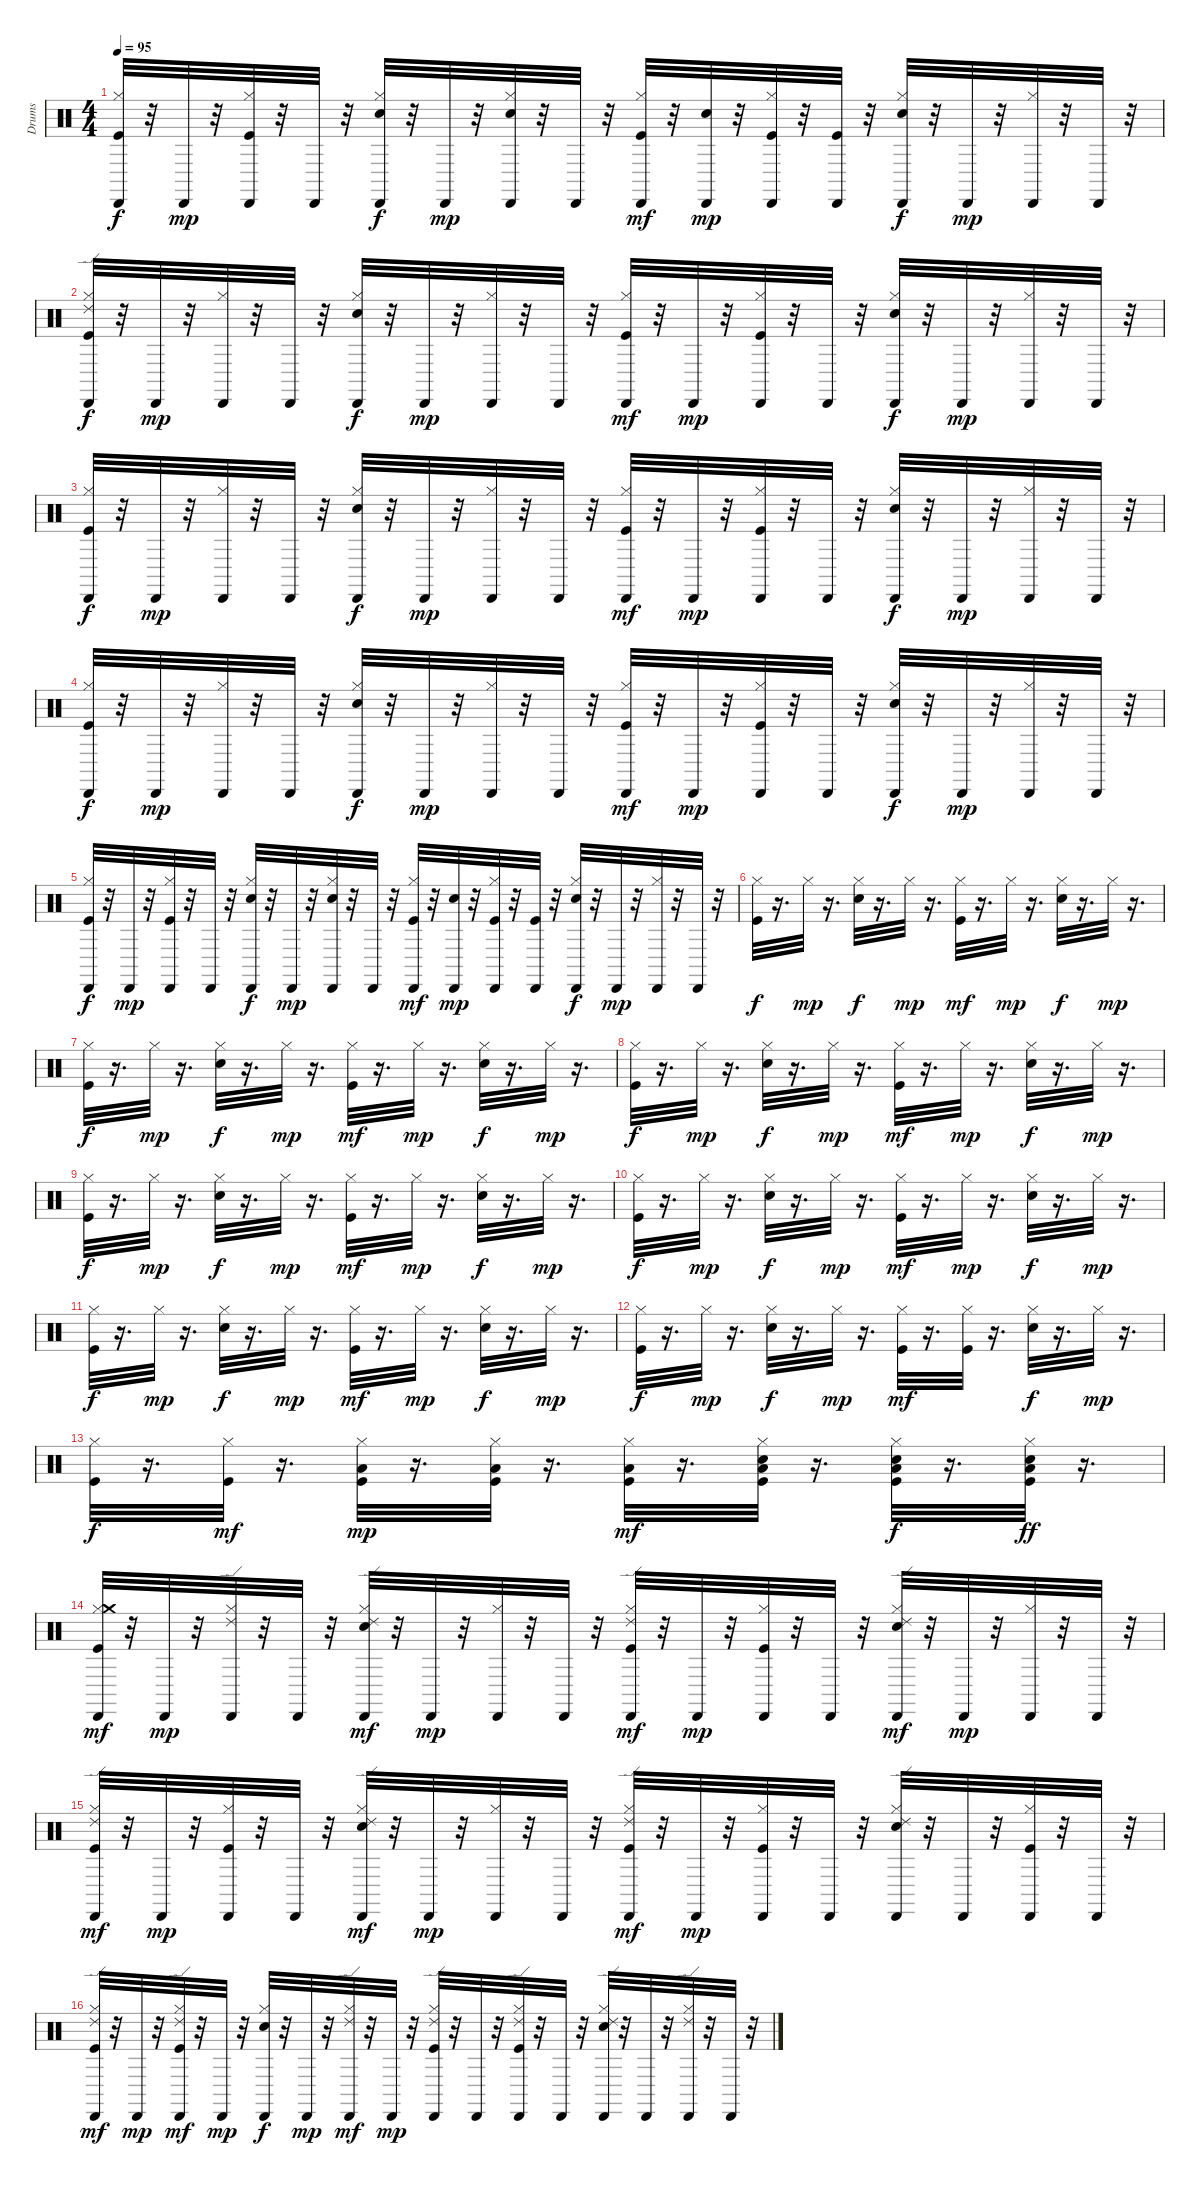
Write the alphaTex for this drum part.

\track ("Drums" "Drums") {instrument percussion}
\staff {score}
\articulation defaults
\ts (4 4)
\tempo 95
\clef neutral
\ks c
("Hi-Hat (closed)" "Kick (hit)" "Cabasa (hit)").32{dy f} r.32 "Cabasa (hit)".32{dy mp} r.32 ("Hi-Hat (closed)" "Kick (hit)" "Cabasa (hit)").32 r.32 "Cabasa (hit)".32 r.32 ("Hi-Hat (closed)" "Electric Snare (hit)" "Cabasa (hit)").32{dy f} r.32 "Cabasa (hit)".32{dy mp} r.32 ("Hi-Hat (closed)" "Electric Snare (hit)" "Cabasa (hit)").32 r.32 "Cabasa (hit)".32 r.32 ("Hi-Hat (closed)" "Kick (hit)" "Cabasa (hit)").32{dy mf} r.32 ("Electric Snare (hit)" "Cabasa (hit)").32{dy mp} r.32 ("Hi-Hat (closed)" "Kick (hit)" "Cabasa (hit)").32 r.32 ("Kick (hit)" "Cabasa (hit)").32 r.32 ("Hi-Hat (closed)" "Electric Snare (hit)" "Cabasa (hit)").32{dy f} r.32 "Cabasa (hit)".32{dy mp} r.32 ("Hi-Hat (closed)" "Cabasa (hit)").32 r.32 "Cabasa (hit)".32 r.32 |
("Kick (hit)" "Hi-Hat (closed)" "Ride (edge) 2" "Cabasa (hit)").32{dy f} r.32 "Cabasa (hit)".32{dy mp} r.32 ("Hi-Hat (closed)" "Cabasa (hit)").32 r.32 "Cabasa (hit)".32 r.32 ("Hi-Hat (closed)" "Electric Snare (hit)" "Cabasa (hit)").32{dy f} r.32 "Cabasa (hit)".32{dy mp} r.32 ("Hi-Hat (closed)" "Cabasa (hit)").32 r.32 "Cabasa (hit)".32 r.32 ("Hi-Hat (closed)" "Kick (hit)" "Cabasa (hit)").32{dy mf} r.32 "Cabasa (hit)".32{dy mp} r.32 ("Hi-Hat (closed)" "Kick (hit)" "Cabasa (hit)").32 r.32 "Cabasa (hit)".32 r.32 ("Hi-Hat (closed)" "Electric Snare (hit)" "Cabasa (hit)").32{dy f} r.32 "Cabasa (hit)".32{dy mp} r.32 ("Hi-Hat (closed)" "Cabasa (hit)").32 r.32 "Cabasa (hit)".32 r.32 |
("Hi-Hat (closed)" "Kick (hit)" "Cabasa (hit)").32{dy f} r.32 "Cabasa (hit)".32{dy mp} r.32 ("Hi-Hat (closed)" "Cabasa (hit)").32 r.32 "Cabasa (hit)".32 r.32 ("Hi-Hat (closed)" "Electric Snare (hit)" "Cabasa (hit)").32{dy f} r.32 "Cabasa (hit)".32{dy mp} r.32 ("Hi-Hat (closed)" "Cabasa (hit)").32 r.32 "Cabasa (hit)".32 r.32 ("Hi-Hat (closed)" "Kick (hit)" "Cabasa (hit)").32{dy mf} r.32 "Cabasa (hit)".32{dy mp} r.32 ("Hi-Hat (closed)" "Kick (hit)" "Cabasa (hit)").32 r.32 "Cabasa (hit)".32 r.32 ("Hi-Hat (closed)" "Electric Snare (hit)" "Cabasa (hit)").32{dy f} r.32 "Cabasa (hit)".32{dy mp} r.32 ("Hi-Hat (closed)" "Cabasa (hit)").32 r.32 "Cabasa (hit)".32 r.32 |
("Kick (hit)" "Hi-Hat (closed)" "Cabasa (hit)").32{dy f} r.32 "Cabasa (hit)".32{dy mp} r.32 ("Hi-Hat (closed)" "Cabasa (hit)").32 r.32 "Cabasa (hit)".32 r.32 ("Hi-Hat (closed)" "Electric Snare (hit)" "Cabasa (hit)").32{dy f} r.32 "Cabasa (hit)".32{dy mp} r.32 ("Hi-Hat (closed)" "Cabasa (hit)").32 r.32 "Cabasa (hit)".32 r.32 ("Hi-Hat (closed)" "Kick (hit)" "Cabasa (hit)").32{dy mf} r.32 "Cabasa (hit)".32{dy mp} r.32 ("Hi-Hat (closed)" "Kick (hit)" "Cabasa (hit)").32 r.32 "Cabasa (hit)".32 r.32 ("Hi-Hat (closed)" "Electric Snare (hit)" "Cabasa (hit)").32{dy f} r.32 "Cabasa (hit)".32{dy mp} r.32 ("Hi-Hat (closed)" "Cabasa (hit)").32 r.32 "Cabasa (hit)".32 r.32 |
("Hi-Hat (closed)" "Kick (hit)" "Cabasa (hit)").32{dy f} r.32 "Cabasa (hit)".32{dy mp} r.32 ("Hi-Hat (closed)" "Kick (hit)" "Cabasa (hit)").32 r.32 "Cabasa (hit)".32 r.32 ("Hi-Hat (closed)" "Electric Snare (hit)" "Cabasa (hit)").32{dy f} r.32 "Cabasa (hit)".32{dy mp} r.32 ("Hi-Hat (closed)" "Electric Snare (hit)" "Cabasa (hit)").32 r.32 "Cabasa (hit)".32 r.32 ("Hi-Hat (closed)" "Kick (hit)" "Cabasa (hit)").32{dy mf} r.32 ("Electric Snare (hit)" "Cabasa (hit)").32{dy mp} r.32 ("Hi-Hat (closed)" "Kick (hit)" "Cabasa (hit)").32 r.32 ("Kick (hit)" "Cabasa (hit)").32 r.32 ("Hi-Hat (closed)" "Electric Snare (hit)" "Cabasa (hit)").32{dy f} r.32 "Cabasa (hit)".32{dy mp} r.32 ("Hi-Hat (closed)" "Cabasa (hit)").32 r.32 "Cabasa (hit)".32 r.32 |
("Kick (hit)" "Hi-Hat (closed)").32{dy f} r.16{d} "Hi-Hat (closed)".32{dy mp} r.16{d} ("Hi-Hat (closed)" "Electric Snare (hit)").32{dy f} r.16{d} "Hi-Hat (closed)".32{dy mp} r.16{d} ("Hi-Hat (closed)" "Kick (hit)").32{dy mf} r.16{d} "Hi-Hat (closed)".32{dy mp} r.16{d} ("Hi-Hat (closed)" "Electric Snare (hit)").32{dy f} r.16{d} "Hi-Hat (closed)".32{dy mp} r.16{d} |
("Hi-Hat (closed)" "Kick (hit)").32{dy f} r.16{d} "Hi-Hat (closed)".32{dy mp} r.16{d} ("Hi-Hat (closed)" "Electric Snare (hit)").32{dy f} r.16{d} "Hi-Hat (closed)".32{dy mp} r.16{d} ("Hi-Hat (closed)" "Kick (hit)").32{dy mf} r.16{d} "Hi-Hat (closed)".32{dy mp} r.16{d} ("Hi-Hat (closed)" "Electric Snare (hit)").32{dy f} r.16{d} "Hi-Hat (closed)".32{dy mp} r.16{d} |
("Kick (hit)" "Hi-Hat (closed)").32{dy f} r.16{d} "Hi-Hat (closed)".32{dy mp} r.16{d} ("Hi-Hat (closed)" "Electric Snare (hit)").32{dy f} r.16{d} "Hi-Hat (closed)".32{dy mp} r.16{d} ("Hi-Hat (closed)" "Kick (hit)").32{dy mf} r.16{d} "Hi-Hat (closed)".32{dy mp} r.16{d} ("Hi-Hat (closed)" "Electric Snare (hit)").32{dy f} r.16{d} "Hi-Hat (closed)".32{dy mp} r.16{d} |
("Hi-Hat (closed)" "Kick (hit)").32{dy f} r.16{d} "Hi-Hat (closed)".32{dy mp} r.16{d} ("Hi-Hat (closed)" "Electric Snare (hit)").32{dy f} r.16{d} "Hi-Hat (closed)".32{dy mp} r.16{d} ("Hi-Hat (closed)" "Kick (hit)").32{dy mf} r.16{d} "Hi-Hat (closed)".32{dy mp} r.16{d} ("Hi-Hat (closed)" "Electric Snare (hit)").32{dy f} r.16{d} "Hi-Hat (closed)".32{dy mp} r.16{d} |
("Kick (hit)" "Hi-Hat (closed)").32{dy f} r.16{d} "Hi-Hat (closed)".32{dy mp} r.16{d} ("Hi-Hat (closed)" "Electric Snare (hit)").32{dy f} r.16{d} "Hi-Hat (closed)".32{dy mp} r.16{d} ("Hi-Hat (closed)" "Kick (hit)").32{dy mf} r.16{d} "Hi-Hat (closed)".32{dy mp} r.16{d} ("Hi-Hat (closed)" "Electric Snare (hit)").32{dy f} r.16{d} "Hi-Hat (closed)".32{dy mp} r.16{d} |
("Hi-Hat (closed)" "Kick (hit)").32{dy f} r.16{d} "Hi-Hat (closed)".32{dy mp} r.16{d} ("Hi-Hat (closed)" "Electric Snare (hit)").32{dy f} r.16{d} "Hi-Hat (closed)".32{dy mp} r.16{d} ("Hi-Hat (closed)" "Kick (hit)").32{dy mf} r.16{d} "Hi-Hat (closed)".32{dy mp} r.16{d} ("Hi-Hat (closed)" "Electric Snare (hit)").32{dy f} r.16{d} "Hi-Hat (closed)".32{dy mp} r.16{d} |
("Kick (hit)" "Hi-Hat (closed)").32{dy f} r.16{d} "Hi-Hat (closed)".32{dy mp} r.16{d} ("Hi-Hat (closed)" "Electric Snare (hit)").32{dy f} r.16{d} "Hi-Hat (closed)".32{dy mp} r.16{d} ("Hi-Hat (closed)" "Kick (hit)").32{dy mf} r.16{d} ("Hi-Hat (closed)" "Kick (hit)").32 r.16{d} ("Hi-Hat (closed)" "Electric Snare (hit)").32{dy f} r.16{d} "Hi-Hat (closed)".32{dy mp} r.16{d} |
("Hi-Hat (closed)" "Kick (hit)").32{dy f} r.16{d} ("Hi-Hat (closed)" "Kick (hit)").32{dy mf} r.16{d} ("Hi-Hat (closed)" "Kick (hit)" "Low Floor Tom (hit)").32{dy mp} r.16{d} ("Hi-Hat (closed)" "Kick (hit)" "Low Floor Tom (hit)").32 r.16{d} ("Hi-Hat (closed)" "Kick (hit)" "Low Floor Tom (hit)").32{dy mf} r.16{d} ("Hi-Hat (closed)" "Electric Snare (hit)" "Kick (hit)" "Low Floor Tom (hit)").32 r.16{d} ("Hi-Hat (closed)" "Kick (hit)" "Electric Snare (hit)" "Low Floor Tom (hit)").32{dy f} r.16{d} ("Hi-Hat (closed)" "Kick (hit)" "Electric Snare (hit)" "Low Floor Tom (hit)").32{dy ff} r.16{d} |
("Kick (hit)" "Hi-Hat (closed)" "Crash medium (hit)" "Cabasa (hit)").32{dy mf} r.32 "Cabasa (hit)".32{dy mp} r.32 ("Hi-Hat (closed)" "Cabasa (hit)" "Ride (edge) 2").32 r.32 "Cabasa (hit)".32 r.32 ("Hi-Hat (closed)" "Electric Snare (hit)" "Cabasa (hit)" "Ride (edge) 2").32{dy mf} r.32 "Cabasa (hit)".32{dy mp} r.32 ("Hi-Hat (closed)" "Cabasa (hit)").32 r.32 "Cabasa (hit)".32 r.32 ("Hi-Hat (closed)" "Kick (hit)" "Cabasa (hit)" "Ride (edge) 2").32{dy mf} r.32 "Cabasa (hit)".32{dy mp} r.32 ("Hi-Hat (closed)" "Kick (hit)" "Cabasa (hit)").32 r.32 "Cabasa (hit)".32 r.32 ("Hi-Hat (closed)" "Electric Snare (hit)" "Cabasa (hit)" "Ride (edge) 2").32{dy mf} r.32 "Cabasa (hit)".32{dy mp} r.32 ("Hi-Hat (closed)" "Cabasa (hit)").32 r.32 "Cabasa (hit)".32 r.32 |
("Hi-Hat (closed)" "Kick (hit)" "Cabasa (hit)" "Ride (edge) 2").32{dy mf} r.32 "Cabasa (hit)".32{dy mp} r.32 ("Hi-Hat (closed)" "Kick (hit)" "Cabasa (hit)").32 r.32 "Cabasa (hit)".32 r.32 ("Hi-Hat (closed)" "Electric Snare (hit)" "Cabasa (hit)" "Ride (edge) 2").32{dy mf} r.32 "Cabasa (hit)".32{dy mp} r.32 ("Hi-Hat (closed)" "Cabasa (hit)").32 r.32 "Cabasa (hit)".32 r.32 ("Hi-Hat (closed)" "Kick (hit)" "Cabasa (hit)" "Ride (edge) 2").32{dy mf} r.32 "Cabasa (hit)".32{dy mp} r.32 ("Hi-Hat (closed)" "Kick (hit)" "Cabasa (hit)").32 r.32 "Cabasa (hit)".32 r.32 ("Hi-Hat (closed)" "Electric Snare (hit)" "Cabasa (hit)" "Ride (edge) 2").32 r.32 "Cabasa (hit)".32 r.32 ("Hi-Hat (closed)" "Kick (hit)" "Cabasa (hit)").32 r.32 "Cabasa (hit)".32 r.32 |
("Kick (hit)" "Hi-Hat (closed)" "Cabasa (hit)" "Ride (edge) 2").32{dy mf} r.32 "Cabasa (hit)".32{dy mp} r.32 ("Hi-Hat (closed)" "Kick (hit)" "Cabasa (hit)" "Ride (edge) 2").32{dy mf} r.32 "Cabasa (hit)".32{dy mp} r.32 ("Hi-Hat (closed)" "Electric Snare (hit)" "Cabasa (hit)").32{dy f} r.32 "Cabasa (hit)".32{dy mp} r.32 ("Hi-Hat (closed)" "Cabasa (hit)" "Ride (edge) 2").32{dy mf} r.32 "Cabasa (hit)".32{dy mp} r.32 ("Hi-Hat (closed)" "Kick (hit)" "Cabasa (hit)" "Ride (edge) 2").32 r.32 "Cabasa (hit)".32 r.32 ("Hi-Hat (closed)" "Kick (hit)" "Cabasa (hit)" "Ride (edge) 2").32 r.32 "Cabasa (hit)".32 r.32 ("Hi-Hat (closed)" "Electric Snare (hit)" "Cabasa (hit)" "Ride (edge) 2").32 r.32 "Cabasa (hit)".32 r.32 ("Hi-Hat (closed)" "Cabasa (hit)" "Ride (edge) 2").32 r.32 "Cabasa (hit)".32 r.32
